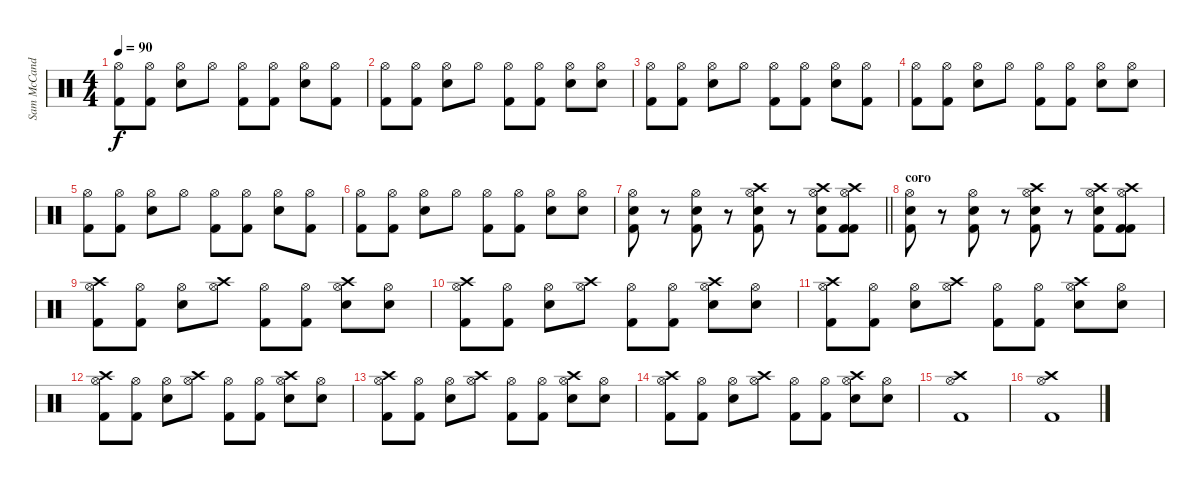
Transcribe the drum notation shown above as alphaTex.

\track ("Sam McCandless" "Sam McCand") {instrument percussion}
\staff {score}
\articulation defaults
\ts (4 4)
\tempo 90
\clef neutral
\ks c
("Hi-Hat (open)" "Kick (hit) 2").8{dy f} ("Hi-Hat (open)" "Kick (hit) 2").8 ("Hi-Hat (open)" "Electric Snare (hit)").8 "Hi-Hat (open)".8 ("Hi-Hat (open)" "Kick (hit) 2").8 ("Hi-Hat (open)" "Kick (hit) 2").8 ("Hi-Hat (open)" "Electric Snare (hit)").8 ("Hi-Hat (open)" "Kick (hit) 2").8 |
("Hi-Hat (open)" "Kick (hit) 2").8 ("Hi-Hat (open)" "Kick (hit) 2").8 ("Hi-Hat (open)" "Electric Snare (hit)").8 "Hi-Hat (open)".8 ("Hi-Hat (open)" "Kick (hit) 2").8 ("Hi-Hat (open)" "Kick (hit) 2").8 ("Hi-Hat (open)" "Electric Snare (hit)").8 ("Hi-Hat (open)" "Electric Snare (hit)").8 |
("Hi-Hat (open)" "Kick (hit) 2").8 ("Hi-Hat (open)" "Kick (hit) 2").8 ("Hi-Hat (open)" "Electric Snare (hit)").8 "Hi-Hat (open)".8 ("Hi-Hat (open)" "Kick (hit) 2").8 ("Hi-Hat (open)" "Kick (hit) 2").8 ("Hi-Hat (open)" "Electric Snare (hit)").8 ("Hi-Hat (open)" "Kick (hit) 2").8 |
("Hi-Hat (open)" "Kick (hit) 2").8 ("Hi-Hat (open)" "Kick (hit) 2").8 ("Hi-Hat (open)" "Electric Snare (hit)").8 "Hi-Hat (open)".8 ("Hi-Hat (open)" "Kick (hit) 2").8 ("Hi-Hat (open)" "Kick (hit) 2").8 ("Hi-Hat (open)" "Electric Snare (hit)").8 ("Hi-Hat (open)" "Electric Snare (hit)").8 |
("Hi-Hat (open)" "Kick (hit) 2").8 ("Hi-Hat (open)" "Kick (hit) 2").8 ("Hi-Hat (open)" "Electric Snare (hit)").8 "Hi-Hat (open)".8 ("Hi-Hat (open)" "Kick (hit) 2").8 ("Hi-Hat (open)" "Kick (hit) 2").8 ("Hi-Hat (open)" "Electric Snare (hit)").8 ("Hi-Hat (open)" "Kick (hit) 2").8 |
("Hi-Hat (open)" "Kick (hit) 2").8 ("Hi-Hat (open)" "Kick (hit) 2").8 ("Hi-Hat (open)" "Electric Snare (hit)").8 "Hi-Hat (open)".8 ("Hi-Hat (open)" "Kick (hit) 2").8 ("Hi-Hat (open)" "Kick (hit) 2").8 ("Hi-Hat (open)" "Electric Snare (hit)").8 ("Hi-Hat (open)" "Electric Snare (hit)").8 |
\barLineRight lightlight
("Hi-Hat (open)" "Kick (hit) 2" "Snare (hit) 2").8 r.8 ("Hi-Hat (open)" "Kick (hit) 2" "Snare (hit) 2").8 r.8 ("Crash high (hit)" "Hi-Hat (open)" "Kick (hit) 2" "Snare (hit) 2").8 r.8 ("Crash high (hit)" "Hi-Hat (open)" "Kick (hit) 2" "Snare (hit) 2").8 ("Crash high (hit)" "Hi-Hat (open)" "Kick (hit) 2" "Kick (hit) 2").8 |
\section ("" "coro")
("Hi-Hat (open)" "Kick (hit) 2" "Snare (hit) 2").8 r.8 ("Hi-Hat (open)" "Kick (hit) 2" "Snare (hit) 2").8 r.8 ("Crash high (hit)" "Hi-Hat (open)" "Kick (hit) 2" "Snare (hit) 2").8 r.8 ("Crash high (hit)" "Hi-Hat (open)" "Kick (hit) 2" "Snare (hit) 2").8 ("Crash high (hit)" "Hi-Hat (open)" "Kick (hit) 2" "Kick (hit) 2").8 |
("Crash high (hit)" "Hi-Hat (open)" "Kick (hit) 2").8 ("Hi-Hat (open)" "Kick (hit) 2").8 ("Hi-Hat (open)" "Electric Snare (hit)").8 ("Crash high (hit)" "Hi-Hat (open)").8 ("Hi-Hat (open)" "Kick (hit) 2").8 ("Hi-Hat (open)" "Kick (hit) 2").8 ("Crash high (hit)" "Hi-Hat (open)" "Electric Snare (hit)").8 ("Hi-Hat (open)" "Electric Snare (hit)").8 |
("Crash high (hit)" "Hi-Hat (open)" "Kick (hit) 2").8 ("Hi-Hat (open)" "Kick (hit) 2").8 ("Hi-Hat (open)" "Electric Snare (hit)").8 ("Crash high (hit)" "Hi-Hat (open)").8 ("Hi-Hat (open)" "Kick (hit) 2").8 ("Hi-Hat (open)" "Kick (hit) 2").8 ("Crash high (hit)" "Hi-Hat (open)" "Electric Snare (hit)").8 ("Hi-Hat (open)" "Electric Snare (hit)").8 |
("Crash high (hit)" "Hi-Hat (open)" "Kick (hit) 2").8 ("Hi-Hat (open)" "Kick (hit) 2").8 ("Hi-Hat (open)" "Electric Snare (hit)").8 ("Crash high (hit)" "Hi-Hat (open)").8 ("Hi-Hat (open)" "Kick (hit) 2").8 ("Hi-Hat (open)" "Kick (hit) 2").8 ("Crash high (hit)" "Hi-Hat (open)" "Electric Snare (hit)").8 ("Hi-Hat (open)" "Electric Snare (hit)").8 |
("Crash high (hit)" "Hi-Hat (open)" "Kick (hit) 2").8 ("Hi-Hat (open)" "Kick (hit) 2").8 ("Hi-Hat (open)" "Electric Snare (hit)").8 ("Crash high (hit)" "Hi-Hat (open)").8 ("Hi-Hat (open)" "Kick (hit) 2").8 ("Hi-Hat (open)" "Kick (hit) 2").8 ("Crash high (hit)" "Hi-Hat (open)" "Electric Snare (hit)").8 ("Hi-Hat (open)" "Electric Snare (hit)").8 |
("Crash high (hit)" "Hi-Hat (open)" "Kick (hit) 2").8 ("Hi-Hat (open)" "Kick (hit) 2").8 ("Hi-Hat (open)" "Electric Snare (hit)").8 ("Crash high (hit)" "Hi-Hat (open)").8 ("Hi-Hat (open)" "Kick (hit) 2").8 ("Hi-Hat (open)" "Kick (hit) 2").8 ("Crash high (hit)" "Hi-Hat (open)" "Electric Snare (hit)").8 ("Hi-Hat (open)" "Electric Snare (hit)").8 |
("Crash high (hit)" "Hi-Hat (open)" "Kick (hit) 2").8 ("Hi-Hat (open)" "Kick (hit) 2").8 ("Hi-Hat (open)" "Electric Snare (hit)").8 ("Crash high (hit)" "Hi-Hat (open)").8 ("Hi-Hat (open)" "Kick (hit) 2").8 ("Hi-Hat (open)" "Kick (hit) 2").8 ("Crash high (hit)" "Hi-Hat (open)" "Electric Snare (hit)").8 ("Hi-Hat (open)" "Electric Snare (hit)").8 |
("Crash high (hit)" "Hi-Hat (open)" "Kick (hit) 2").1 |
("Crash high (hit)" "Hi-Hat (open)" "Kick (hit) 2").1
